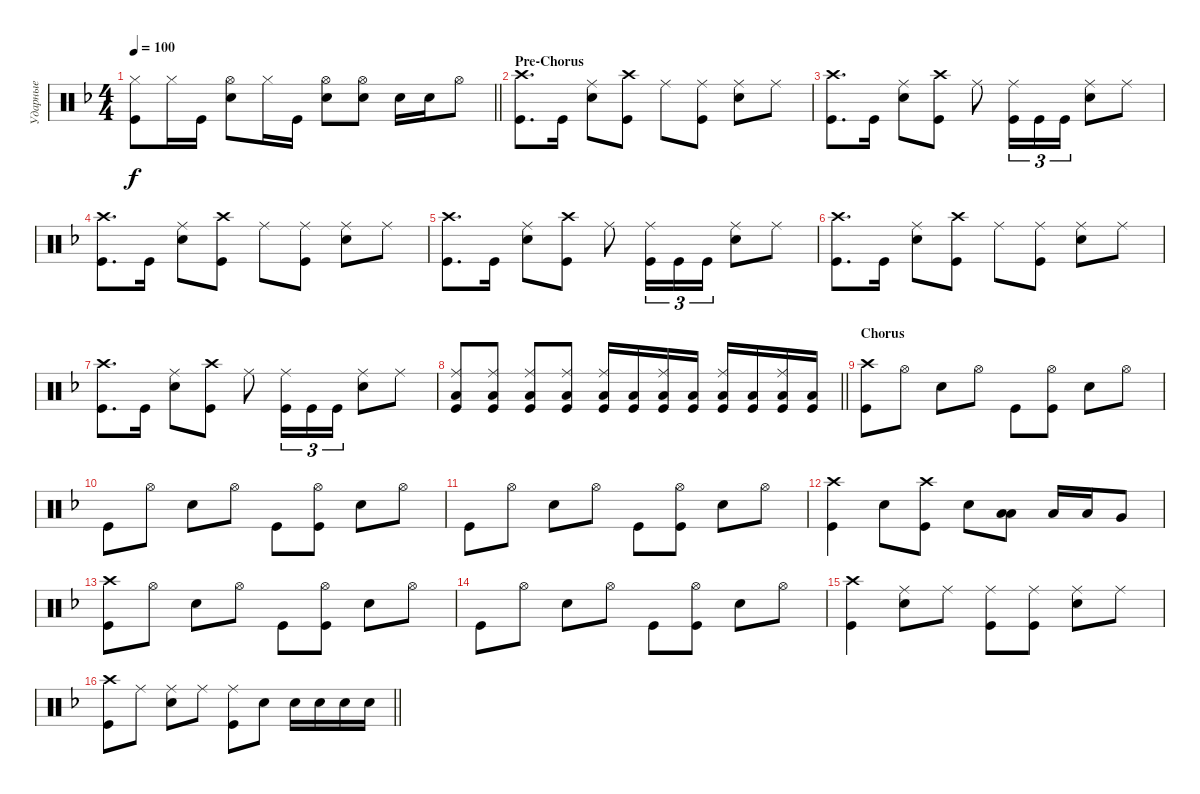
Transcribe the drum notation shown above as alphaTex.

\track ("Ударные" "Ударные") {instrument percussion}
\staff {score}
\articulation defaults
\ts (4 4)
\tempo 100
\clef neutral
\barLineRight lightlight
\ks dminor
("Kick (hit)" "Hi-Hat (closed)").8{dy f} "Hi-Hat (closed)".16 "Kick (hit)".16 ("Snare (hit) 2" "Hi-Hat (open)").8 "Hi-Hat (closed)".16 "Kick (hit)".16 ("Snare (hit) 2" "Hi-Hat (open)").8 ("Snare (hit) 2" "Hi-Hat (open)").8 "Snare (hit) 2".16 "Snare (hit) 2".16 "Hi-Hat (open)".8 |
\section ("" "Pre-Chorus")
("Kick (hit)" "Crash high (hit)").8{d} "Kick (hit)".16 ("Snare (hit) 2" "Ride (middle)").8 ("Kick (hit)" "Crash high (hit)").8 "Ride (middle)".8 ("Ride (middle)" "Kick (hit)").8 ("Snare (hit) 2" "Ride (middle)").8 "Ride (middle)".8 |
("Kick (hit)" "Crash high (hit)").8{d} "Kick (hit)".16 ("Snare (hit) 2" "Ride (middle)").8 ("Kick (hit)" "Crash high (hit)").8 "Ride (middle)".8 ("Ride (middle)" "Kick (hit)").16{tu (3 2)} "Kick (hit)".16{tu (3 2)} "Kick (hit)".16{tu (3 2)} ("Snare (hit) 2" "Ride (middle)").8 "Ride (middle)".8 |
("Kick (hit)" "Crash high (hit)").8{d} "Kick (hit)".16 ("Snare (hit) 2" "Ride (middle)").8 ("Kick (hit)" "Crash high (hit)").8 "Ride (middle)".8 ("Ride (middle)" "Kick (hit)").8 ("Snare (hit) 2" "Ride (middle)").8 "Ride (middle)".8 |
("Kick (hit)" "Crash high (hit)").8{d} "Kick (hit)".16 ("Snare (hit) 2" "Ride (middle)").8 ("Kick (hit)" "Crash high (hit)").8 "Ride (middle)".8 ("Ride (middle)" "Kick (hit)").16{tu (3 2)} "Kick (hit)".16{tu (3 2)} "Kick (hit)".16{tu (3 2)} ("Snare (hit) 2" "Ride (middle)").8 "Ride (middle)".8 |
("Kick (hit)" "Crash high (hit)").8{d} "Kick (hit)".16 ("Snare (hit) 2" "Ride (middle)").8 ("Kick (hit)" "Crash high (hit)").8 "Ride (middle)".8 ("Ride (middle)" "Kick (hit)").8 ("Snare (hit) 2" "Ride (middle)").8 "Ride (middle)".8 |
("Kick (hit)" "Crash high (hit)").8{d} "Kick (hit)".16 ("Snare (hit) 2" "Ride (middle)").8 ("Kick (hit)" "Crash high (hit)").8 "Ride (middle)".8 ("Ride (middle)" "Kick (hit)").16{tu (3 2)} "Kick (hit)".16{tu (3 2)} "Kick (hit)".16{tu (3 2)} ("Snare (hit) 2" "Ride (middle)").8 "Ride (middle)".8 |
\barLineRight lightlight
("Kick (hit)" "Ride (middle)" "Low Floor Tom (hit)").8 ("Kick (hit)" "Ride (middle)" "Low Floor Tom (hit)").8 ("Kick (hit)" "Ride (middle)" "Low Floor Tom (hit)").8 ("Kick (hit)" "Ride (middle)" "Low Floor Tom (hit)").8 ("Kick (hit)" "Ride (middle)" "Low Floor Tom (hit)").16 ("Kick (hit)" "Low Floor Tom (hit)").16 ("Kick (hit)" "Ride (middle)" "Low Floor Tom (hit)").16 ("Kick (hit)" "Low Floor Tom (hit)").16 ("Kick (hit)" "Ride (middle)" "Low Floor Tom (hit)").16 ("Kick (hit)" "Low Floor Tom (hit)").16 ("Kick (hit)" "Ride (middle)" "Low Floor Tom (hit)").16 ("Kick (hit)" "Low Floor Tom (hit)").16 |
\section ("" "Chorus")
("Kick (hit)" "Crash high (hit)").8 "Hi-Hat (open)".8 "Snare (hit) 2".8 "Hi-Hat (open)".8 "Kick (hit)".8 ("Hi-Hat (open)" "Kick (hit)").8 "Snare (hit) 2".8 "Hi-Hat (open)".8 |
"Kick (hit)".8 "Hi-Hat (open)".8 "Snare (hit) 2".8 "Hi-Hat (open)".8 "Kick (hit)".8 ("Hi-Hat (open)" "Kick (hit)").8 "Snare (hit) 2".8 "Hi-Hat (open)".8 |
"Kick (hit)".8 "Hi-Hat (open)".8 "Snare (hit) 2".8 "Hi-Hat (open)".8 "Kick (hit)".8 ("Hi-Hat (open)" "Kick (hit)").8 "Snare (hit) 2".8 "Hi-Hat (open)".8 |
("Kick (hit)" "Crash high (hit)").4 "Snare (hit) 2".8 ("Kick (hit)" "Crash high (hit)").8 "Snare (hit) 2".8 ("Low Tom (hit)" "Low Tom (hit)").8{bd 120} "Low Tom (hit)".16 "Low Tom (hit)".16 "Very Low Tom (hit)".8 |
("Kick (hit)" "Crash high (hit)").8 "Hi-Hat (open)".8 "Snare (hit) 2".8 "Hi-Hat (open)".8 "Kick (hit)".8 ("Hi-Hat (open)" "Kick (hit)").8 "Snare (hit) 2".8 "Hi-Hat (open)".8 |
"Kick (hit)".8 "Hi-Hat (open)".8 "Snare (hit) 2".8 "Hi-Hat (open)".8 "Kick (hit)".8 ("Hi-Hat (open)" "Kick (hit)").8 "Snare (hit) 2".8 "Hi-Hat (open)".8 |
("Kick (hit)" "Crash high (hit)").4 ("Snare (hit) 2" "Ride (middle)").8 "Ride (middle)".8 ("Ride (middle)" "Kick (hit)").8 ("Ride (middle)" "Kick (hit)").8 ("Ride (middle)" "Snare (hit) 2").8 "Ride (middle)".8 |
\barLineRight lightlight
("Kick (hit)" "Crash high (hit)").8 "Ride (middle)".8 ("Snare (hit) 2" "Ride (middle)").8 "Ride (middle)".8 ("Ride (middle)" "Kick (hit)").8 "Snare (hit) 2".8 "Snare (hit) 2".16 "Snare (hit) 2".16 "Snare (hit) 2".16 "Snare (hit) 2".16
